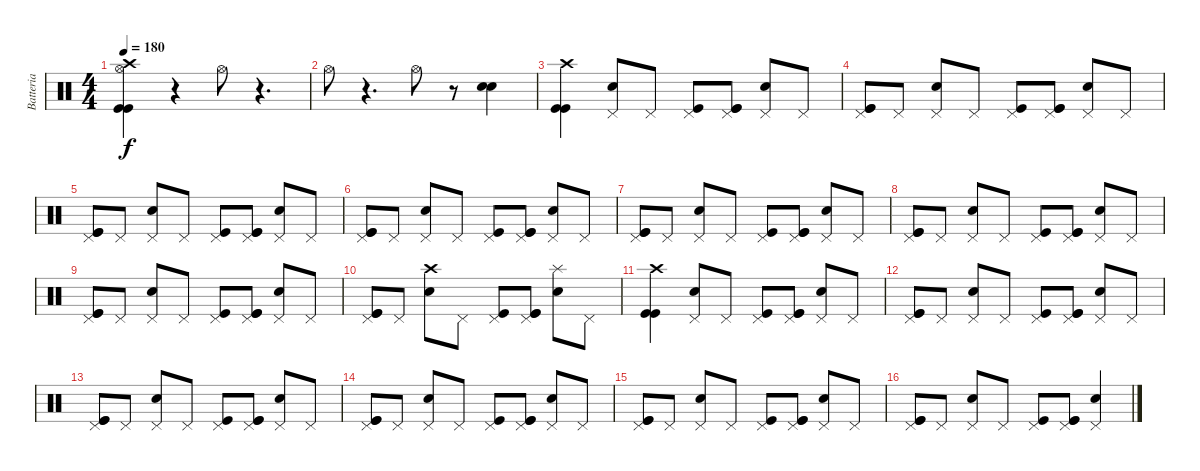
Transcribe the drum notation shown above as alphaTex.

\track ("Batteria" "Batteria") {instrument percussion}
\staff {score}
\articulation defaults
\ts (4 4)
\tempo 180
\clef neutral
\ks c
("Hi-Hat (open)" "Crash high (hit)" "Kick (hit)" "Kick (hit)").4{dy f} r.4 "Hi-Hat (open)".8 r.4{d} |
"Hi-Hat (open)".8 r.4{d} "Hi-Hat (open)".8 r.8 ("Snare (hit) 2" "Snare (hit) 2").4 |
("Kick (hit)" "Kick (hit)" "Crash high (hit)").4 ("Snare (hit) 2" "Pedal Hi-Hat (hit)").8 "Pedal Hi-Hat (hit)".8 ("Kick (hit)" "Pedal Hi-Hat (hit)").8 ("Kick (hit)" "Kick (hit)" "Pedal Hi-Hat (hit)").8 ("Snare (hit) 2" "Pedal Hi-Hat (hit)").8 "Pedal Hi-Hat (hit)".8 |
("Kick (hit)" "Kick (hit)" "Pedal Hi-Hat (hit)").8 "Pedal Hi-Hat (hit)".8 ("Snare (hit) 2" "Pedal Hi-Hat (hit)").8 "Pedal Hi-Hat (hit)".8 ("Kick (hit)" "Pedal Hi-Hat (hit)").8 ("Kick (hit)" "Kick (hit)" "Pedal Hi-Hat (hit)").8 ("Snare (hit) 2" "Pedal Hi-Hat (hit)").8 "Pedal Hi-Hat (hit)".8 |
("Pedal Hi-Hat (hit)" "Kick (hit)" "Kick (hit)").8 "Pedal Hi-Hat (hit)".8 ("Snare (hit) 2" "Pedal Hi-Hat (hit)").8 "Pedal Hi-Hat (hit)".8 ("Kick (hit)" "Pedal Hi-Hat (hit)").8 ("Kick (hit)" "Kick (hit)" "Pedal Hi-Hat (hit)").8 ("Snare (hit) 2" "Pedal Hi-Hat (hit)").8 "Pedal Hi-Hat (hit)".8 |
("Pedal Hi-Hat (hit)" "Kick (hit)" "Kick (hit)").8 "Pedal Hi-Hat (hit)".8 ("Snare (hit) 2" "Pedal Hi-Hat (hit)").8 "Pedal Hi-Hat (hit)".8 ("Kick (hit)" "Pedal Hi-Hat (hit)").8 ("Kick (hit)" "Kick (hit)" "Pedal Hi-Hat (hit)").8 ("Snare (hit) 2" "Pedal Hi-Hat (hit)").8 "Pedal Hi-Hat (hit)".8 |
("Kick (hit)" "Kick (hit)" "Pedal Hi-Hat (hit)").8 "Pedal Hi-Hat (hit)".8 ("Snare (hit) 2" "Pedal Hi-Hat (hit)").8 "Pedal Hi-Hat (hit)".8 ("Kick (hit)" "Pedal Hi-Hat (hit)").8 ("Kick (hit)" "Kick (hit)" "Pedal Hi-Hat (hit)").8 ("Snare (hit) 2" "Pedal Hi-Hat (hit)").8 "Pedal Hi-Hat (hit)".8 |
("Pedal Hi-Hat (hit)" "Kick (hit)" "Kick (hit)").8 "Pedal Hi-Hat (hit)".8 ("Snare (hit) 2" "Pedal Hi-Hat (hit)").8 "Pedal Hi-Hat (hit)".8 ("Kick (hit)" "Pedal Hi-Hat (hit)").8 ("Kick (hit)" "Kick (hit)" "Pedal Hi-Hat (hit)").8 ("Snare (hit) 2" "Pedal Hi-Hat (hit)").8 "Pedal Hi-Hat (hit)".8 |
("Kick (hit)" "Kick (hit)" "Pedal Hi-Hat (hit)").8 "Pedal Hi-Hat (hit)".8 ("Snare (hit) 2" "Pedal Hi-Hat (hit)").8 "Pedal Hi-Hat (hit)".8 ("Kick (hit)" "Pedal Hi-Hat (hit)").8 ("Kick (hit)" "Kick (hit)" "Pedal Hi-Hat (hit)").8 ("Snare (hit) 2" "Pedal Hi-Hat (hit)").8 "Pedal Hi-Hat (hit)".8 |
("Pedal Hi-Hat (hit)" "Kick (hit)" "Kick (hit)").8 "Pedal Hi-Hat (hit)".8 ("Snare (hit) 2" "Crash high (hit)").8 "Pedal Hi-Hat (hit)".8 ("Kick (hit)" "Pedal Hi-Hat (hit)").8 ("Kick (hit)" "Kick (hit)" "Pedal Hi-Hat (hit)").8 ("Snare (hit) 2" "Splash (hit)").8 "Pedal Hi-Hat (hit)".8 |
("Kick (hit)" "Kick (hit)" "Crash high (hit)").4 ("Snare (hit) 2" "Pedal Hi-Hat (hit)").8 "Pedal Hi-Hat (hit)".8 ("Kick (hit)" "Pedal Hi-Hat (hit)").8 ("Kick (hit)" "Kick (hit)" "Pedal Hi-Hat (hit)").8 ("Snare (hit) 2" "Pedal Hi-Hat (hit)").8 "Pedal Hi-Hat (hit)".8 |
("Kick (hit)" "Kick (hit)" "Pedal Hi-Hat (hit)").8 "Pedal Hi-Hat (hit)".8 ("Snare (hit) 2" "Pedal Hi-Hat (hit)").8 "Pedal Hi-Hat (hit)".8 ("Kick (hit)" "Pedal Hi-Hat (hit)").8 ("Kick (hit)" "Kick (hit)" "Pedal Hi-Hat (hit)").8 ("Snare (hit) 2" "Pedal Hi-Hat (hit)").8 "Pedal Hi-Hat (hit)".8 |
("Pedal Hi-Hat (hit)" "Kick (hit)" "Kick (hit)").8 "Pedal Hi-Hat (hit)".8 ("Snare (hit) 2" "Pedal Hi-Hat (hit)").8 "Pedal Hi-Hat (hit)".8 ("Kick (hit)" "Pedal Hi-Hat (hit)").8 ("Kick (hit)" "Kick (hit)" "Pedal Hi-Hat (hit)").8 ("Snare (hit) 2" "Pedal Hi-Hat (hit)").8 "Pedal Hi-Hat (hit)".8 |
("Pedal Hi-Hat (hit)" "Kick (hit)" "Kick (hit)").8 "Pedal Hi-Hat (hit)".8 ("Snare (hit) 2" "Pedal Hi-Hat (hit)").8 "Pedal Hi-Hat (hit)".8 ("Kick (hit)" "Pedal Hi-Hat (hit)").8 ("Kick (hit)" "Kick (hit)" "Pedal Hi-Hat (hit)").8 ("Snare (hit) 2" "Pedal Hi-Hat (hit)").8 "Pedal Hi-Hat (hit)".8 |
("Kick (hit)" "Kick (hit)" "Pedal Hi-Hat (hit)").8 "Pedal Hi-Hat (hit)".8 ("Snare (hit) 2" "Pedal Hi-Hat (hit)").8 "Pedal Hi-Hat (hit)".8 ("Kick (hit)" "Pedal Hi-Hat (hit)").8 ("Kick (hit)" "Kick (hit)" "Pedal Hi-Hat (hit)").8 ("Snare (hit) 2" "Pedal Hi-Hat (hit)").8 "Pedal Hi-Hat (hit)".8 |
("Pedal Hi-Hat (hit)" "Kick (hit)" "Kick (hit)").8 "Pedal Hi-Hat (hit)".8 ("Snare (hit) 2" "Pedal Hi-Hat (hit)").8 "Pedal Hi-Hat (hit)".8 ("Kick (hit)" "Pedal Hi-Hat (hit)").8 ("Kick (hit)" "Kick (hit)" "Pedal Hi-Hat (hit)").8 ("Pedal Hi-Hat (hit)" "Snare (hit) 2").4
